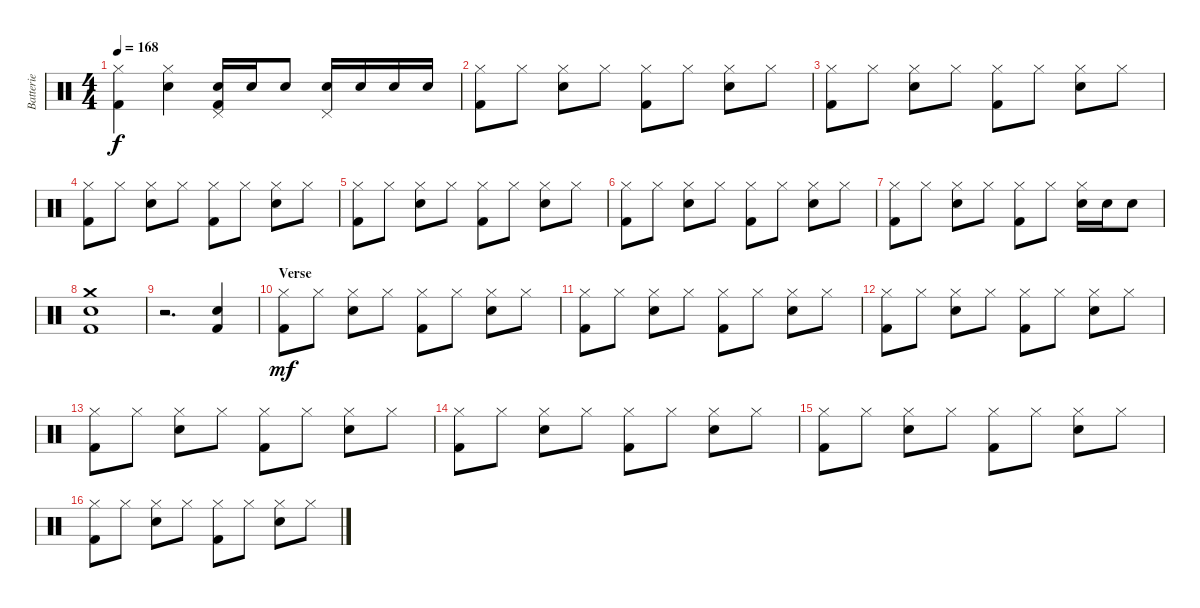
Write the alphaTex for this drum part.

\track ("Batterie" "Batterie") {instrument percussion}
\staff {score}
\articulation defaults
\ts (4 4)
\tempo 168
\clef neutral
\ks c
("Hi-Hat (closed)" "Kick (hit) 2").4{dy f} ("Hi-Hat (closed)" "Snare (hit) 2").4 ("Pedal Hi-Hat (hit)" "Snare (hit) 2" "Kick (hit) 2").16 "Snare (hit) 2".16 "Snare (hit) 2".8 ("Pedal Hi-Hat (hit)" "Snare (hit) 2").16 "Snare (hit) 2".16 "Snare (hit) 2".16 "Snare (hit) 2".16 |
("Hi-Hat (closed)" "Kick (hit) 2").8 "Hi-Hat (closed)".8 ("Hi-Hat (closed)" "Snare (hit) 2").8 "Hi-Hat (closed)".8 ("Hi-Hat (closed)" "Kick (hit) 2").8 "Hi-Hat (closed)".8 ("Hi-Hat (closed)" "Snare (hit) 2").8 "Hi-Hat (closed)".8 |
("Hi-Hat (closed)" "Kick (hit) 2").8 "Hi-Hat (closed)".8 ("Hi-Hat (closed)" "Snare (hit) 2").8 "Hi-Hat (closed)".8 ("Hi-Hat (closed)" "Kick (hit) 2").8 "Hi-Hat (closed)".8 ("Hi-Hat (closed)" "Snare (hit) 2").8 "Hi-Hat (closed)".8 |
("Hi-Hat (closed)" "Kick (hit) 2").8 "Hi-Hat (closed)".8 ("Hi-Hat (closed)" "Snare (hit) 2").8 "Hi-Hat (closed)".8 ("Hi-Hat (closed)" "Kick (hit) 2").8 "Hi-Hat (closed)".8 ("Hi-Hat (closed)" "Snare (hit) 2").8 "Hi-Hat (closed)".8 |
("Hi-Hat (closed)" "Kick (hit) 2").8 "Hi-Hat (closed)".8 ("Hi-Hat (closed)" "Snare (hit) 2").8 "Hi-Hat (closed)".8 ("Hi-Hat (closed)" "Kick (hit) 2").8 "Hi-Hat (closed)".8 ("Hi-Hat (closed)" "Snare (hit) 2").8 "Hi-Hat (closed)".8 |
("Hi-Hat (closed)" "Kick (hit) 2").8 "Hi-Hat (closed)".8 ("Hi-Hat (closed)" "Snare (hit) 2").8 "Hi-Hat (closed)".8 ("Hi-Hat (closed)" "Kick (hit) 2").8 "Hi-Hat (closed)".8 ("Hi-Hat (closed)" "Snare (hit) 2").8 "Hi-Hat (closed)".8 |
("Hi-Hat (closed)" "Kick (hit) 2").8 "Hi-Hat (closed)".8 ("Hi-Hat (closed)" "Snare (hit) 2").8 "Hi-Hat (closed)".8 ("Hi-Hat (closed)" "Kick (hit) 2").8 "Hi-Hat (closed)".8 ("Hi-Hat (closed)" "Snare (hit) 2").16 "Snare (hit) 2".16 "Snare (hit) 2".8 |
("Crash medium (hit)" "Snare (hit) 2" "Kick (hit) 2").1 |
r.2{d} ("Snare (hit) 2" "Kick (hit) 2").4 |
\section ("" "Verse")
("Hi-Hat (closed)" "Kick (hit) 2").8{dy mf} "Hi-Hat (closed)".8 ("Hi-Hat (closed)" "Snare (hit) 2").8 "Hi-Hat (closed)".8 ("Hi-Hat (closed)" "Kick (hit) 2").8 "Hi-Hat (closed)".8 ("Hi-Hat (closed)" "Snare (hit) 2").8 "Hi-Hat (closed)".8 |
("Hi-Hat (closed)" "Kick (hit) 2").8 "Hi-Hat (closed)".8 ("Hi-Hat (closed)" "Snare (hit) 2").8 "Hi-Hat (closed)".8 ("Hi-Hat (closed)" "Kick (hit) 2").8 "Hi-Hat (closed)".8 ("Hi-Hat (closed)" "Snare (hit) 2").8 "Hi-Hat (closed)".8 |
("Hi-Hat (closed)" "Kick (hit) 2").8 "Hi-Hat (closed)".8 ("Hi-Hat (closed)" "Snare (hit) 2").8 "Hi-Hat (closed)".8 ("Hi-Hat (closed)" "Kick (hit) 2").8 "Hi-Hat (closed)".8 ("Hi-Hat (closed)" "Snare (hit) 2").8 "Hi-Hat (closed)".8 |
("Hi-Hat (closed)" "Kick (hit) 2").8 "Hi-Hat (closed)".8 ("Hi-Hat (closed)" "Snare (hit) 2").8 "Hi-Hat (closed)".8 ("Hi-Hat (closed)" "Kick (hit) 2").8 "Hi-Hat (closed)".8 ("Hi-Hat (closed)" "Snare (hit) 2").8 "Hi-Hat (closed)".8 |
("Hi-Hat (closed)" "Kick (hit) 2").8 "Hi-Hat (closed)".8 ("Hi-Hat (closed)" "Snare (hit) 2").8 "Hi-Hat (closed)".8 ("Hi-Hat (closed)" "Kick (hit) 2").8 "Hi-Hat (closed)".8 ("Hi-Hat (closed)" "Snare (hit) 2").8 "Hi-Hat (closed)".8 |
("Hi-Hat (closed)" "Kick (hit) 2").8 "Hi-Hat (closed)".8 ("Hi-Hat (closed)" "Snare (hit) 2").8 "Hi-Hat (closed)".8 ("Hi-Hat (closed)" "Kick (hit) 2").8 "Hi-Hat (closed)".8 ("Hi-Hat (closed)" "Snare (hit) 2").8 "Hi-Hat (closed)".8 |
("Hi-Hat (closed)" "Kick (hit) 2").8 "Hi-Hat (closed)".8 ("Hi-Hat (closed)" "Snare (hit) 2").8 "Hi-Hat (closed)".8 ("Hi-Hat (closed)" "Kick (hit) 2").8 "Hi-Hat (closed)".8 ("Hi-Hat (closed)" "Snare (hit) 2").8 "Hi-Hat (closed)".8
